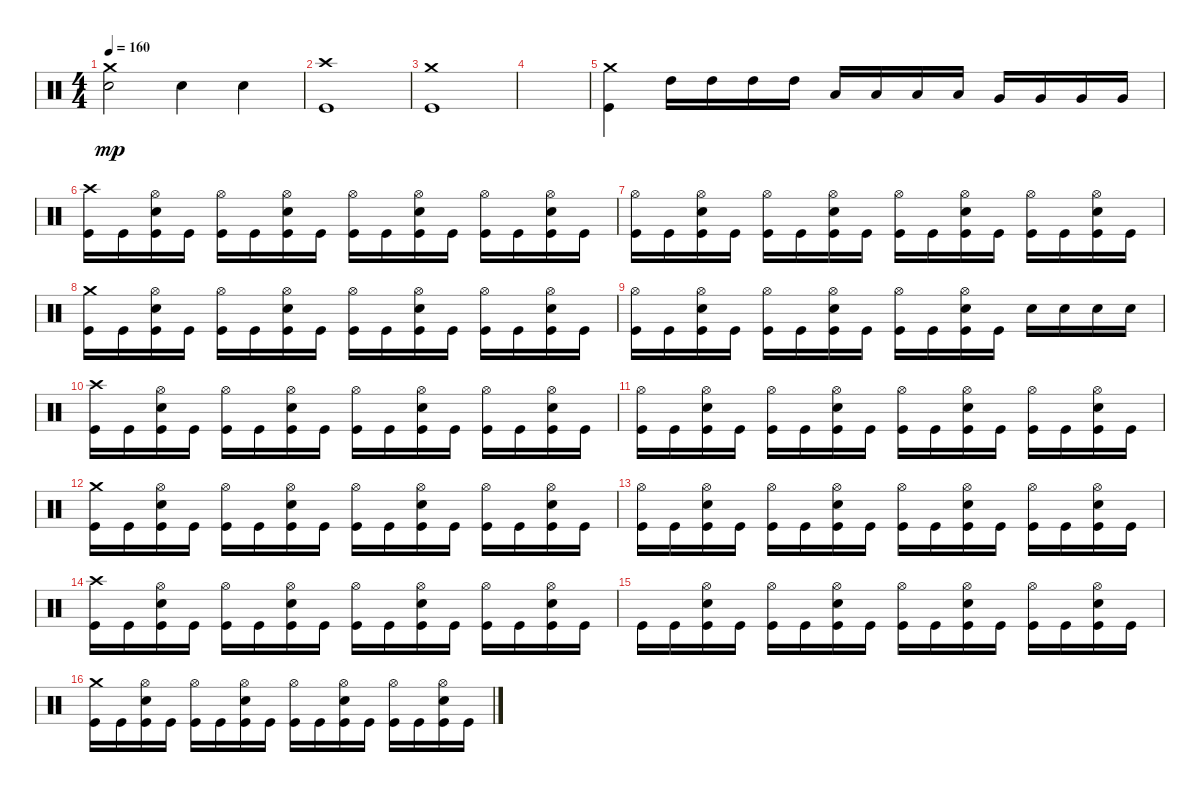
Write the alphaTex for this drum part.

\track "" {instrument percussion}
\staff {score}
\articulation defaults
\ts (4 4)
\tempo 160
\clef neutral
\ks c
("Snare (hit) 2" "Crash medium (hit)").2{dy mp} "Snare (hit) 2".4 "Snare (hit) 2".4 |
("Kick (hit)" "Crash high (hit)").1 |
("Crash medium (hit)" "Kick (hit)").1 |
|
("Kick (hit)" "Crash medium (hit)").4 "High Tom (hit)".16 "High Tom (hit)".16 "High Tom (hit)".16 "High Tom (hit)".16 "Low Tom (hit)".16 "Low Tom (hit)".16 "Low Tom (hit)".16 "Low Tom (hit)".16 "Very Low Tom (hit)".16 "Very Low Tom (hit)".16 "Very Low Tom (hit)".16 "Very Low Tom (hit)".16 |
("Kick (hit)" "Crash high (hit)").16 "Kick (hit)".16 ("Snare (hit) 2" "Hi-Hat (open)" "Kick (hit)").16 "Kick (hit)".16 ("Kick (hit)" "Hi-Hat (open)").16 "Kick (hit)".16 ("Snare (hit) 2" "Hi-Hat (open)" "Kick (hit)").16 "Kick (hit)".16 ("Kick (hit)" "Hi-Hat (open)").16 "Kick (hit)".16 ("Snare (hit) 2" "Hi-Hat (open)" "Kick (hit)").16 "Kick (hit)".16 ("Kick (hit)" "Hi-Hat (open)").16 "Kick (hit)".16 ("Snare (hit) 2" "Hi-Hat (open)" "Kick (hit)").16 "Kick (hit)".16 |
("Kick (hit)" "Hi-Hat (open)").16 "Kick (hit)".16 ("Snare (hit) 2" "Hi-Hat (open)" "Kick (hit)").16 "Kick (hit)".16 ("Kick (hit)" "Hi-Hat (open)").16 "Kick (hit)".16 ("Snare (hit) 2" "Hi-Hat (open)" "Kick (hit)").16 "Kick (hit)".16 ("Kick (hit)" "Hi-Hat (open)").16 "Kick (hit)".16 ("Snare (hit) 2" "Hi-Hat (open)" "Kick (hit)").16 "Kick (hit)".16 ("Kick (hit)" "Hi-Hat (open)").16 "Kick (hit)".16 ("Snare (hit) 2" "Hi-Hat (open)" "Kick (hit)").16 "Kick (hit)".16 |
("Kick (hit)" "Crash medium (hit)").16 "Kick (hit)".16 ("Snare (hit) 2" "Hi-Hat (open)" "Kick (hit)").16 "Kick (hit)".16 ("Kick (hit)" "Hi-Hat (open)").16 "Kick (hit)".16 ("Snare (hit) 2" "Hi-Hat (open)" "Kick (hit)").16 "Kick (hit)".16 ("Kick (hit)" "Hi-Hat (open)").16 "Kick (hit)".16 ("Snare (hit) 2" "Hi-Hat (open)" "Kick (hit)").16 "Kick (hit)".16 ("Kick (hit)" "Hi-Hat (open)").16 "Kick (hit)".16 ("Snare (hit) 2" "Hi-Hat (open)" "Kick (hit)").16 "Kick (hit)".16 |
("Kick (hit)" "Hi-Hat (open)").16 "Kick (hit)".16 ("Snare (hit) 2" "Hi-Hat (open)" "Kick (hit)").16 "Kick (hit)".16 ("Kick (hit)" "Hi-Hat (open)").16 "Kick (hit)".16 ("Snare (hit) 2" "Hi-Hat (open)" "Kick (hit)").16 "Kick (hit)".16 ("Kick (hit)" "Hi-Hat (open)").16 "Kick (hit)".16 ("Snare (hit) 2" "Hi-Hat (open)" "Kick (hit)").16 "Kick (hit)".16 "Snare (hit) 2".16 "Snare (hit) 2".16 "Snare (hit) 2".16 "Snare (hit) 2".16 |
("Kick (hit)" "Crash high (hit)").16 "Kick (hit)".16 ("Snare (hit) 2" "Hi-Hat (open)" "Kick (hit)").16 "Kick (hit)".16 ("Kick (hit)" "Hi-Hat (open)").16 "Kick (hit)".16 ("Snare (hit) 2" "Hi-Hat (open)" "Kick (hit)").16 "Kick (hit)".16 ("Kick (hit)" "Hi-Hat (open)").16 "Kick (hit)".16 ("Snare (hit) 2" "Hi-Hat (open)" "Kick (hit)").16 "Kick (hit)".16 ("Kick (hit)" "Hi-Hat (open)").16 "Kick (hit)".16 ("Snare (hit) 2" "Hi-Hat (open)" "Kick (hit)").16 "Kick (hit)".16 |
("Kick (hit)" "Hi-Hat (open)").16 "Kick (hit)".16 ("Snare (hit) 2" "Hi-Hat (open)" "Kick (hit)").16 "Kick (hit)".16 ("Kick (hit)" "Hi-Hat (open)").16 "Kick (hit)".16 ("Snare (hit) 2" "Hi-Hat (open)" "Kick (hit)").16 "Kick (hit)".16 ("Kick (hit)" "Hi-Hat (open)").16 "Kick (hit)".16 ("Snare (hit) 2" "Hi-Hat (open)" "Kick (hit)").16 "Kick (hit)".16 ("Kick (hit)" "Hi-Hat (open)").16 "Kick (hit)".16 ("Snare (hit) 2" "Hi-Hat (open)" "Kick (hit)").16 "Kick (hit)".16 |
("Kick (hit)" "Crash medium (hit)").16 "Kick (hit)".16 ("Snare (hit) 2" "Hi-Hat (open)" "Kick (hit)").16 "Kick (hit)".16 ("Kick (hit)" "Hi-Hat (open)").16 "Kick (hit)".16 ("Snare (hit) 2" "Hi-Hat (open)" "Kick (hit)").16 "Kick (hit)".16 ("Kick (hit)" "Hi-Hat (open)").16 "Kick (hit)".16 ("Snare (hit) 2" "Hi-Hat (open)" "Kick (hit)").16 "Kick (hit)".16 ("Kick (hit)" "Hi-Hat (open)").16 "Kick (hit)".16 ("Snare (hit) 2" "Hi-Hat (open)" "Kick (hit)").16 "Kick (hit)".16 |
("Kick (hit)" "Hi-Hat (open)").16 "Kick (hit)".16 ("Snare (hit) 2" "Hi-Hat (open)" "Kick (hit)").16 "Kick (hit)".16 ("Kick (hit)" "Hi-Hat (open)").16 "Kick (hit)".16 ("Snare (hit) 2" "Hi-Hat (open)" "Kick (hit)").16 "Kick (hit)".16 ("Kick (hit)" "Hi-Hat (open)").16 "Kick (hit)".16 ("Snare (hit) 2" "Hi-Hat (open)" "Kick (hit)").16 "Kick (hit)".16 ("Kick (hit)" "Hi-Hat (open)").16 "Kick (hit)".16 ("Snare (hit) 2" "Hi-Hat (open)" "Kick (hit)").16 "Kick (hit)".16 |
("Kick (hit)" "Crash high (hit)").16 "Kick (hit)".16 ("Snare (hit) 2" "Hi-Hat (open)" "Kick (hit)").16 "Kick (hit)".16 ("Kick (hit)" "Hi-Hat (open)").16 "Kick (hit)".16 ("Snare (hit) 2" "Hi-Hat (open)" "Kick (hit)").16 "Kick (hit)".16 ("Kick (hit)" "Hi-Hat (open)").16 "Kick (hit)".16 ("Snare (hit) 2" "Hi-Hat (open)" "Kick (hit)").16 "Kick (hit)".16 ("Kick (hit)" "Hi-Hat (open)").16 "Kick (hit)".16 ("Snare (hit) 2" "Hi-Hat (open)" "Kick (hit)").16 "Kick (hit)".16 |
"Kick (hit)".16 "Kick (hit)".16 ("Snare (hit) 2" "Hi-Hat (open)" "Kick (hit)").16 "Kick (hit)".16 ("Kick (hit)" "Hi-Hat (open)").16 "Kick (hit)".16 ("Snare (hit) 2" "Hi-Hat (open)" "Kick (hit)").16 "Kick (hit)".16 ("Kick (hit)" "Hi-Hat (open)").16 "Kick (hit)".16 ("Snare (hit) 2" "Hi-Hat (open)" "Kick (hit)").16 "Kick (hit)".16 ("Kick (hit)" "Hi-Hat (open)").16 "Kick (hit)".16 ("Snare (hit) 2" "Hi-Hat (open)" "Kick (hit)").16 "Kick (hit)".16 |
("Kick (hit)" "Crash medium (hit)").16 "Kick (hit)".16 ("Snare (hit) 2" "Hi-Hat (open)" "Kick (hit)").16 "Kick (hit)".16 ("Kick (hit)" "Hi-Hat (open)").16 "Kick (hit)".16 ("Snare (hit) 2" "Hi-Hat (open)" "Kick (hit)").16 "Kick (hit)".16 ("Kick (hit)" "Hi-Hat (open)").16 "Kick (hit)".16 ("Snare (hit) 2" "Hi-Hat (open)" "Kick (hit)").16 "Kick (hit)".16 ("Kick (hit)" "Hi-Hat (open)").16 "Kick (hit)".16 ("Snare (hit) 2" "Hi-Hat (open)" "Kick (hit)").16 "Kick (hit)".16
